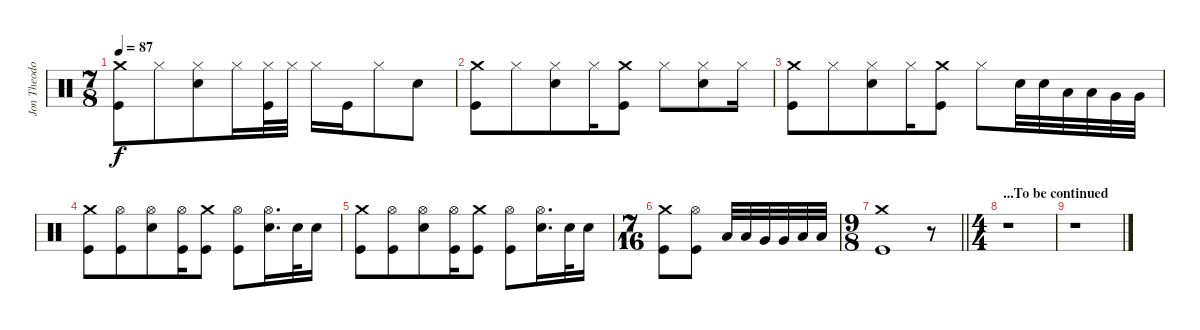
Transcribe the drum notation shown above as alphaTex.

\track ("Jon Theodore" "Jon Theodo") {instrument percussion}
\staff {score}
\articulation defaults
\ts (7 8)
\tempo 87
\clef neutral
\ks c
("Crash medium (hit)" "Kick (hit)").8{dy f} "Hi-Hat (closed)".8 ("Hi-Hat (closed)" "Snare (hit) 2").8 "Hi-Hat (closed)".16 ("Hi-Hat (closed)" "Kick (hit)").32 "Hi-Hat (closed)".32 "Hi-Hat (closed)".16 "Kick (hit)".16 "Hi-Hat (closed)".8 "Snare (hit) 2".8 |
("Crash medium (hit)" "Kick (hit)").8 "Hi-Hat (closed)".8 ("Hi-Hat (closed)" "Snare (hit) 2").8 "Hi-Hat (closed)".16 ("Crash medium (hit)" "Kick (hit)").8 "Hi-Hat (closed)".8 ("Hi-Hat (closed)" "Snare (hit) 2").8 "Hi-Hat (closed)".16 |
("Crash medium (hit)" "Kick (hit)").8 "Hi-Hat (closed)".8 ("Hi-Hat (closed)" "Snare (hit) 2").8 "Hi-Hat (closed)".16 ("Crash medium (hit)" "Kick (hit)").8 "Hi-Hat (closed)".8 "Snare (hit) 2".32 "Snare (hit) 2".32 "Low Tom (hit)".32 "Low Tom (hit)".32 "Very Low Tom (hit)".32 "Very Low Tom (hit)".32 |
("Crash medium (hit)" "Kick (hit)").8 ("Hi-Hat (open)" "Kick (hit)").8 ("Hi-Hat (open)" "Snare (hit) 2").8 ("Hi-Hat (open)" "Kick (hit)").16 ("Crash medium (hit)" "Kick (hit)").8 ("Hi-Hat (open)" "Kick (hit)").8 ("Hi-Hat (open)" "Snare (hit) 2").16{d} "Snare (hit) 2".32 "Snare (hit) 2".16 |
("Crash medium (hit)" "Kick (hit)").8 ("Hi-Hat (open)" "Kick (hit)").8 ("Hi-Hat (open)" "Snare (hit) 2").8 ("Hi-Hat (open)" "Kick (hit)").16 ("Crash medium (hit)" "Kick (hit)").8 ("Hi-Hat (open)" "Kick (hit)").8 ("Hi-Hat (open)" "Snare (hit) 2").16{d} "Snare (hit) 2".32 "Snare (hit) 2".16 |
\ts (7 16)
("Crash medium (hit)" "Kick (hit)").8 ("Hi-Hat (open)" "Kick (hit)").8 "Low Tom (hit)".32 "Low Tom (hit)".32 "Very Low Tom (hit)".32 "Very Low Tom (hit)".32 "Low Floor Tom (hit)".32 "Low Floor Tom (hit)".32 |
\ts (9 8)
\barLineRight lightlight
("Crash medium (hit)" "Kick (hit)").1 r.8 |
\ts (4 4)
\section ("" "...To be continued")
r.1 |
r.1
